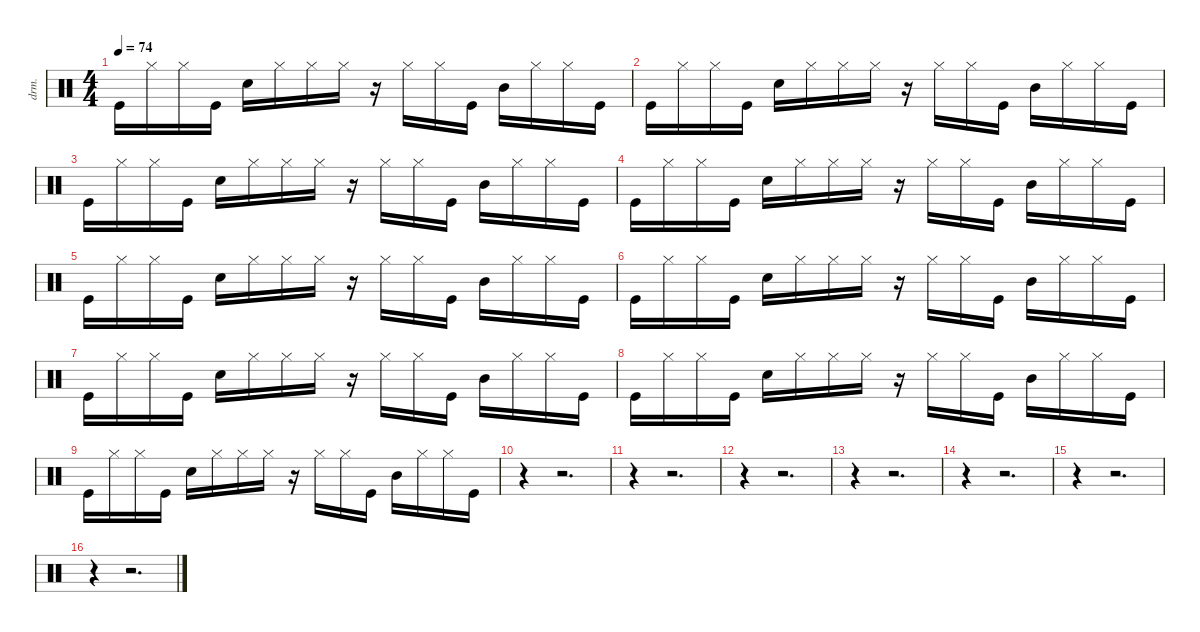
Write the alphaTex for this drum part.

\defaultSystemsLayout 4
\hideDynamics
\bracketExtendMode nobrackets
\otherSystemsTrackNameOrientation horizontal
\track ("Drums" "drm.") {instrument percussion}
\staff {score}
\articulation defaults
\ts (4 4)
\tempo 74
\clef neutral
\ks c "Kick (hit)".16{dy f} "Hi-Hat (closed)".16 "Hi-Hat (closed)".16 "Kick (hit)".16 "Snare (hit) 2".16 "Hi-Hat (closed)".16 "Hi-Hat (closed)".16 "Hi-Hat (closed)".16
r.16 "Hi-Hat (closed)".16 "Hi-Hat (closed)".16 "Kick (hit)".16 "Mid Tom (hit)".16 "Hi-Hat (closed)".16 "Hi-Hat (closed)".16 "Kick (hit)".16 |
"Kick (hit)".16 "Hi-Hat (closed)".16 "Hi-Hat (closed)".16 "Kick (hit)".16 "Snare (hit) 2".16 "Hi-Hat (closed)".16 "Hi-Hat (closed)".16 "Hi-Hat (closed)".16 r.16 "Hi-Hat (closed)".16 "Hi-Hat (closed)".16 "Kick (hit)".16 "Mid Tom (hit)".16 "Hi-Hat (closed)".16 "Hi-Hat (closed)".16 "Kick (hit)".16 |
"Kick (hit)".16 "Hi-Hat (closed)".16 "Hi-Hat (closed)".16 "Kick (hit)".16 "Snare (hit) 2".16 "Hi-Hat (closed)".16 "Hi-Hat (closed)".16 "Hi-Hat (closed)".16 r.16 "Hi-Hat (closed)".16 "Hi-Hat (closed)".16 "Kick (hit)".16 "Mid Tom (hit)".16 "Hi-Hat (closed)".16 "Hi-Hat (closed)".16 "Kick (hit)".16 |
"Kick (hit)".16 "Hi-Hat (closed)".16 "Hi-Hat (closed)".16 "Kick (hit)".16 "Snare (hit) 2".16 "Hi-Hat (closed)".16 "Hi-Hat (closed)".16 "Hi-Hat (closed)".16 r.16 "Hi-Hat (closed)".16 "Hi-Hat (closed)".16 "Kick (hit)".16 "Mid Tom (hit)".16 "Hi-Hat (closed)".16 "Hi-Hat (closed)".16 "Kick (hit)".16 |
"Kick (hit)".16 "Hi-Hat (closed)".16 "Hi-Hat (closed)".16 "Kick (hit)".16 "Snare (hit) 2".16 "Hi-Hat (closed)".16 "Hi-Hat (closed)".16 "Hi-Hat (closed)".16 r.16 "Hi-Hat (closed)".16 "Hi-Hat (closed)".16 "Kick (hit)".16 "Mid Tom (hit)".16 "Hi-Hat (closed)".16 "Hi-Hat (closed)".16 "Kick (hit)".16 |
"Kick (hit)".16 "Hi-Hat (closed)".16 "Hi-Hat (closed)".16 "Kick (hit)".16 "Snare (hit) 2".16 "Hi-Hat (closed)".16 "Hi-Hat (closed)".16 "Hi-Hat (closed)".16 r.16 "Hi-Hat (closed)".16 "Hi-Hat (closed)".16 "Kick (hit)".16 "Mid Tom (hit)".16 "Hi-Hat (closed)".16 "Hi-Hat (closed)".16 "Kick (hit)".16 |
"Kick (hit)".16 "Hi-Hat (closed)".16 "Hi-Hat (closed)".16 "Kick (hit)".16 "Snare (hit) 2".16 "Hi-Hat (closed)".16 "Hi-Hat (closed)".16 "Hi-Hat (closed)".16 r.16 "Hi-Hat (closed)".16 "Hi-Hat (closed)".16 "Kick (hit)".16 "Mid Tom (hit)".16 "Hi-Hat (closed)".16 "Hi-Hat (closed)".16 "Kick (hit)".16 |
"Kick (hit)".16 "Hi-Hat (closed)".16 "Hi-Hat (closed)".16 "Kick (hit)".16 "Snare (hit) 2".16 "Hi-Hat (closed)".16 "Hi-Hat (closed)".16 "Hi-Hat (closed)".16 r.16 "Hi-Hat (closed)".16 "Hi-Hat (closed)".16 "Kick (hit)".16 "Mid Tom (hit)".16 "Hi-Hat (closed)".16 "Hi-Hat (closed)".16 "Kick (hit)".16 |
"Kick (hit)".16 "Hi-Hat (closed)".16 "Hi-Hat (closed)".16 "Kick (hit)".16 "Snare (hit) 2".16 "Hi-Hat (closed)".16 "Hi-Hat (closed)".16 "Hi-Hat (closed)".16 r.16 "Hi-Hat (closed)".16 "Hi-Hat (closed)".16 "Kick (hit)".16 "Mid Tom (hit)".16 "Hi-Hat (closed)".16 "Hi-Hat (closed)".16 "Kick (hit)".16 |
r.4 r.2{d} |
r.4 r.2{d} |
r.4 r.2{d} |
r.4 r.2{d} |
r.4 r.2{d} |
r.4 r.2{d} |
r.4 r.2{d}
